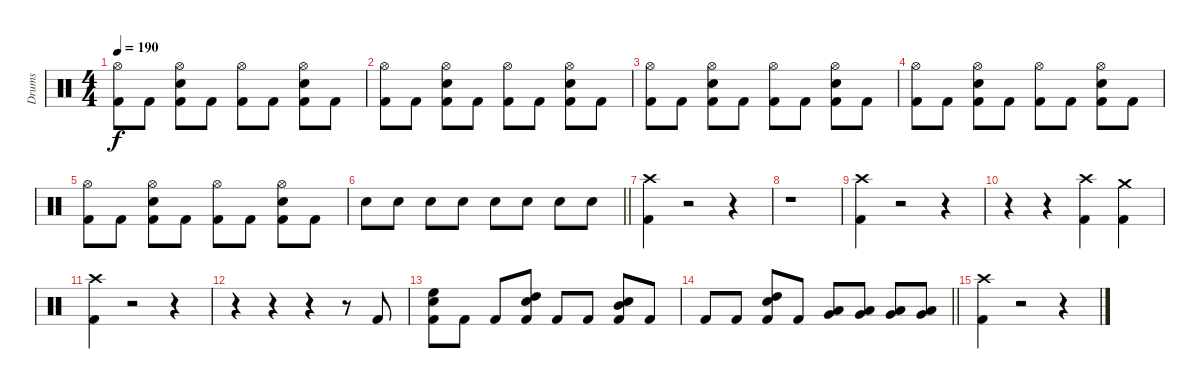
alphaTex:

\track ("Drums" "Drums") {instrument percussion}
\staff {score}
\articulation defaults
\ts (4 4)
\tempo 190
\clef neutral
\ks aminor
("Hi-Hat (open)" "Kick (hit) 2").8{dy f} "Kick (hit) 2".8 ("Hi-Hat (open)" "Electric Snare (hit)" "Kick (hit) 2").8 "Kick (hit) 2".8 ("Hi-Hat (open)" "Kick (hit) 2").8 "Kick (hit) 2".8 ("Hi-Hat (open)" "Electric Snare (hit)" "Kick (hit) 2").8 "Kick (hit) 2".8 |
("Hi-Hat (open)" "Kick (hit) 2").8 "Kick (hit) 2".8 ("Hi-Hat (open)" "Electric Snare (hit)" "Kick (hit) 2").8 "Kick (hit) 2".8 ("Hi-Hat (open)" "Kick (hit) 2").8 "Kick (hit) 2".8 ("Hi-Hat (open)" "Electric Snare (hit)" "Kick (hit) 2").8 "Kick (hit) 2".8 |
("Hi-Hat (open)" "Kick (hit) 2").8 "Kick (hit) 2".8 ("Hi-Hat (open)" "Electric Snare (hit)" "Kick (hit) 2").8 "Kick (hit) 2".8 ("Hi-Hat (open)" "Kick (hit) 2").8 "Kick (hit) 2".8 ("Hi-Hat (open)" "Electric Snare (hit)" "Kick (hit) 2").8 "Kick (hit) 2".8 |
("Hi-Hat (open)" "Kick (hit) 2").8 "Kick (hit) 2".8 ("Hi-Hat (open)" "Electric Snare (hit)" "Kick (hit) 2").8 "Kick (hit) 2".8 ("Hi-Hat (open)" "Kick (hit) 2").8 "Kick (hit) 2".8 ("Hi-Hat (open)" "Electric Snare (hit)" "Kick (hit) 2").8 "Kick (hit) 2".8 |
("Hi-Hat (open)" "Kick (hit) 2").8 "Kick (hit) 2".8 ("Hi-Hat (open)" "Electric Snare (hit)" "Kick (hit) 2").8 "Kick (hit) 2".8 ("Hi-Hat (open)" "Kick (hit) 2").8 "Kick (hit) 2".8 ("Hi-Hat (open)" "Electric Snare (hit)" "Kick (hit) 2").8 "Kick (hit) 2".8 |
\barLineRight lightlight "Electric Snare (hit)".8 "Electric Snare (hit)".8 "Electric Snare (hit)".8 "Electric Snare (hit)".8 "Electric Snare (hit)".8 "Electric Snare (hit)".8 "Electric Snare (hit)".8 "Electric Snare (hit)".8
|
("Crash high (hit)" "Kick (hit) 2").4 r.2 r.4 |
r.1 |
("Crash high (hit)" "Kick (hit) 2").4 r.2 r.4 |
r.4 r.4 ("Crash high (hit)" "Kick (hit) 2").4 ("Crash medium (hit)" "Kick (hit) 2").4 |
("Crash high (hit)" "Kick (hit) 2").4 r.2 r.4 |
r.4 r.4 r.4 r.8 "Kick (hit) 2".8 |
("Electric Snare (hit)" "High Floor Tom (hit)" "Kick (hit) 2").8 "Kick (hit) 2".8 "Kick (hit) 2".8 ("Electric Snare (hit)" "High Tom (hit)" "Kick (hit) 2").8 "Kick (hit) 2".8 "Kick (hit) 2".8 ("Electric Snare (hit)" "Mid Tom (hit)" "Kick (hit) 2").8 "Kick (hit) 2".8 |
\barLineRight lightlight "Kick (hit) 2".8 "Kick (hit) 2".8
("Electric Snare (hit)" "High Tom (hit)" "Kick (hit) 2").8 "Kick (hit) 2".8 ("Very Low Tom (hit)" "Low Floor Tom (hit)").8 ("Very Low Tom (hit)" "Low Floor Tom (hit)").8 ("Very Low Tom (hit)" "Low Floor Tom (hit)").8 ("Very Low Tom (hit)" "Low Floor Tom (hit)").8 |
("Crash high (hit)" "Kick (hit) 2").4 r.2 r.4
